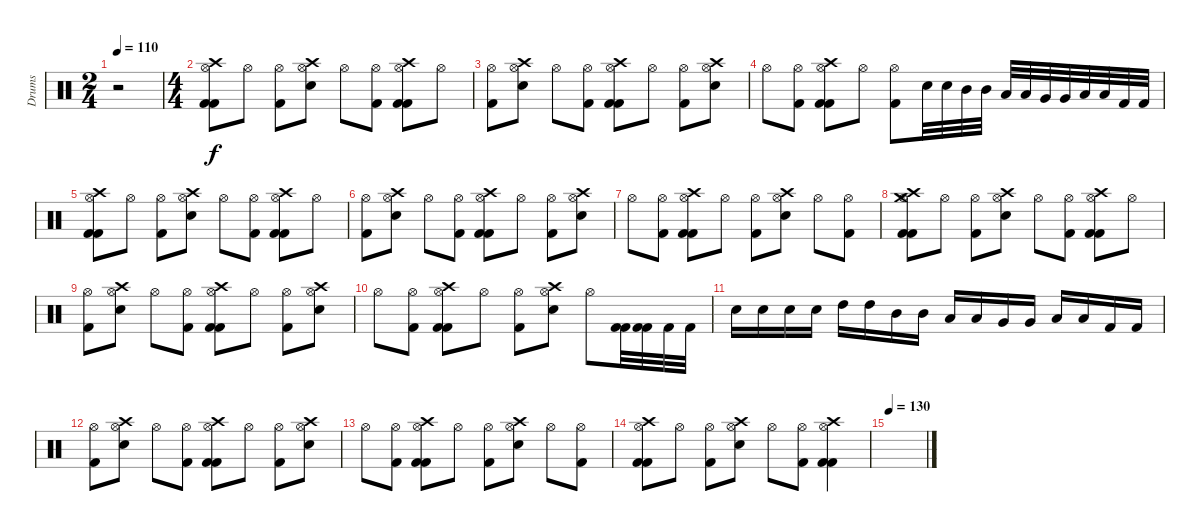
\track ("Drums" "Drums") {instrument percussion}
\staff {score}
\articulation defaults
\ts (2 4)
\tempo 110
\clef neutral
\ks c
r.2{dy f} |
\ts (4 4)
("Crash high (hit)" "Hi-Hat (open)" "Kick (hit) 2" "Kick (hit) 2").8 "Hi-Hat (open)".8 ("Hi-Hat (open)" "Kick (hit) 2").8 ("Crash high (hit)" "Hi-Hat (open)" "Electric Snare (hit)").8 "Hi-Hat (open)".8 ("Hi-Hat (open)" "Kick (hit) 2").8 ("Crash high (hit)" "Hi-Hat (open)" "Kick (hit) 2" "Kick (hit) 2").8 "Hi-Hat (open)".8 |
("Hi-Hat (open)" "Kick (hit) 2").8 ("Crash high (hit)" "Hi-Hat (open)" "Electric Snare (hit)").8 "Hi-Hat (open)".8 ("Hi-Hat (open)" "Kick (hit) 2").8 ("Crash high (hit)" "Hi-Hat (open)" "Kick (hit) 2" "Kick (hit) 2").8 "Hi-Hat (open)".8 ("Hi-Hat (open)" "Kick (hit) 2").8 ("Crash high (hit)" "Hi-Hat (open)" "Electric Snare (hit)").8 |
"Hi-Hat (open)".8 ("Hi-Hat (open)" "Kick (hit) 2").8 ("Crash high (hit)" "Hi-Hat (open)" "Kick (hit) 2" "Kick (hit) 2").8 "Hi-Hat (open)".8 ("Hi-Hat (open)" "Kick (hit) 2").8 "Electric Snare (hit)".32 "Electric Snare (hit)".32 "Mid Tom (hit)".32 "Mid Tom (hit)".32 "Low Tom (hit)".32 "Low Tom (hit)".32 "Very Low Tom (hit)".32 "Very Low Tom (hit)".32 "Low Floor Tom (hit)".32 "Low Floor Tom (hit)".32 "Kick (hit) 2".32 "Kick (hit) 2".32 |
("Crash high (hit)" "Hi-Hat (open)" "Kick (hit) 2" "Kick (hit) 2").8 "Hi-Hat (open)".8 ("Hi-Hat (open)" "Kick (hit) 2").8 ("Crash high (hit)" "Hi-Hat (open)" "Electric Snare (hit)").8 "Hi-Hat (open)".8 ("Hi-Hat (open)" "Kick (hit) 2").8 ("Crash high (hit)" "Hi-Hat (open)" "Kick (hit) 2" "Kick (hit) 2").8 "Hi-Hat (open)".8 |
("Hi-Hat (open)" "Kick (hit) 2").8 ("Crash high (hit)" "Hi-Hat (open)" "Electric Snare (hit)").8 "Hi-Hat (open)".8 ("Hi-Hat (open)" "Kick (hit) 2").8 ("Crash high (hit)" "Hi-Hat (open)" "Kick (hit) 2" "Kick (hit) 2").8 "Hi-Hat (open)".8 ("Hi-Hat (open)" "Kick (hit) 2").8 ("Crash high (hit)" "Hi-Hat (open)" "Electric Snare (hit)").8 |
"Hi-Hat (open)".8 ("Hi-Hat (open)" "Kick (hit) 2").8 ("Crash high (hit)" "Hi-Hat (open)" "Kick (hit) 2" "Kick (hit) 2").8 "Hi-Hat (open)".8 ("Hi-Hat (open)" "Kick (hit) 2").8 ("Crash high (hit)" "Hi-Hat (open)" "Electric Snare (hit)").8 "Hi-Hat (open)".8 ("Hi-Hat (open)" "Kick (hit) 2").8 |
("Crash high (hit)" "Crash medium (hit)" "Hi-Hat (open)" "Kick (hit) 2" "Kick (hit) 2").8 "Hi-Hat (open)".8 ("Hi-Hat (open)" "Kick (hit) 2").8 ("Crash high (hit)" "Hi-Hat (open)" "Electric Snare (hit)").8 "Hi-Hat (open)".8 ("Hi-Hat (open)" "Kick (hit) 2").8 ("Crash high (hit)" "Hi-Hat (open)" "Kick (hit) 2" "Kick (hit) 2").8 "Hi-Hat (open)".8 |
("Hi-Hat (open)" "Kick (hit) 2").8 ("Crash high (hit)" "Hi-Hat (open)" "Electric Snare (hit)").8 "Hi-Hat (open)".8 ("Hi-Hat (open)" "Kick (hit) 2").8 ("Crash high (hit)" "Hi-Hat (open)" "Kick (hit) 2" "Kick (hit) 2").8 "Hi-Hat (open)".8 ("Hi-Hat (open)" "Kick (hit) 2").8 ("Crash high (hit)" "Hi-Hat (open)" "Electric Snare (hit)").8 |
"Hi-Hat (open)".8 ("Hi-Hat (open)" "Kick (hit) 2").8 ("Crash high (hit)" "Hi-Hat (open)" "Kick (hit) 2" "Kick (hit) 2").8 "Hi-Hat (open)".8 ("Hi-Hat (open)" "Kick (hit) 2").8 ("Crash high (hit)" "Hi-Hat (open)" "Electric Snare (hit)").8 "Hi-Hat (open)".8 ("Kick (hit) 2" "Kick (hit) 2").32 ("Kick (hit) 2" "Kick (hit) 2").32 "Kick (hit) 2".32 "Kick (hit) 2".32 |
"Electric Snare (hit)".16 "Electric Snare (hit)".16 "Electric Snare (hit)".16 "Electric Snare (hit)".16 "High Tom (hit)".16 "High Tom (hit)".16 "Mid Tom (hit)".16 "Mid Tom (hit)".16 "Low Tom (hit)".16 "Low Tom (hit)".16 "Very Low Tom (hit)".16 "Very Low Tom (hit)".16 "Low Floor Tom (hit)".16 "Low Floor Tom (hit)".16 "Kick (hit) 2".16 "Kick (hit) 2".16 |
("Hi-Hat (open)" "Kick (hit) 2").8 ("Crash high (hit)" "Hi-Hat (open)" "Electric Snare (hit)").8 "Hi-Hat (open)".8 ("Hi-Hat (open)" "Kick (hit) 2").8 ("Crash high (hit)" "Hi-Hat (open)" "Kick (hit) 2" "Kick (hit) 2").8 "Hi-Hat (open)".8 ("Hi-Hat (open)" "Kick (hit) 2").8 ("Crash high (hit)" "Hi-Hat (open)" "Electric Snare (hit)").8 |
"Hi-Hat (open)".8 ("Hi-Hat (open)" "Kick (hit) 2").8 ("Crash high (hit)" "Hi-Hat (open)" "Kick (hit) 2" "Kick (hit) 2").8 "Hi-Hat (open)".8 ("Hi-Hat (open)" "Kick (hit) 2").8 ("Crash high (hit)" "Hi-Hat (open)" "Electric Snare (hit)").8 "Hi-Hat (open)".8 ("Hi-Hat (open)" "Kick (hit) 2").8 |
("Crash high (hit)" "Hi-Hat (open)" "Kick (hit) 2" "Kick (hit) 2").8 "Hi-Hat (open)".8 ("Hi-Hat (open)" "Kick (hit) 2").8 ("Crash high (hit)" "Hi-Hat (open)" "Electric Snare (hit)").8 "Hi-Hat (open)".8 ("Hi-Hat (open)" "Kick (hit) 2").8 ("Crash high (hit)" "Hi-Hat (open)" "Kick (hit) 2" "Kick (hit) 2").4 |
\tempo 130
